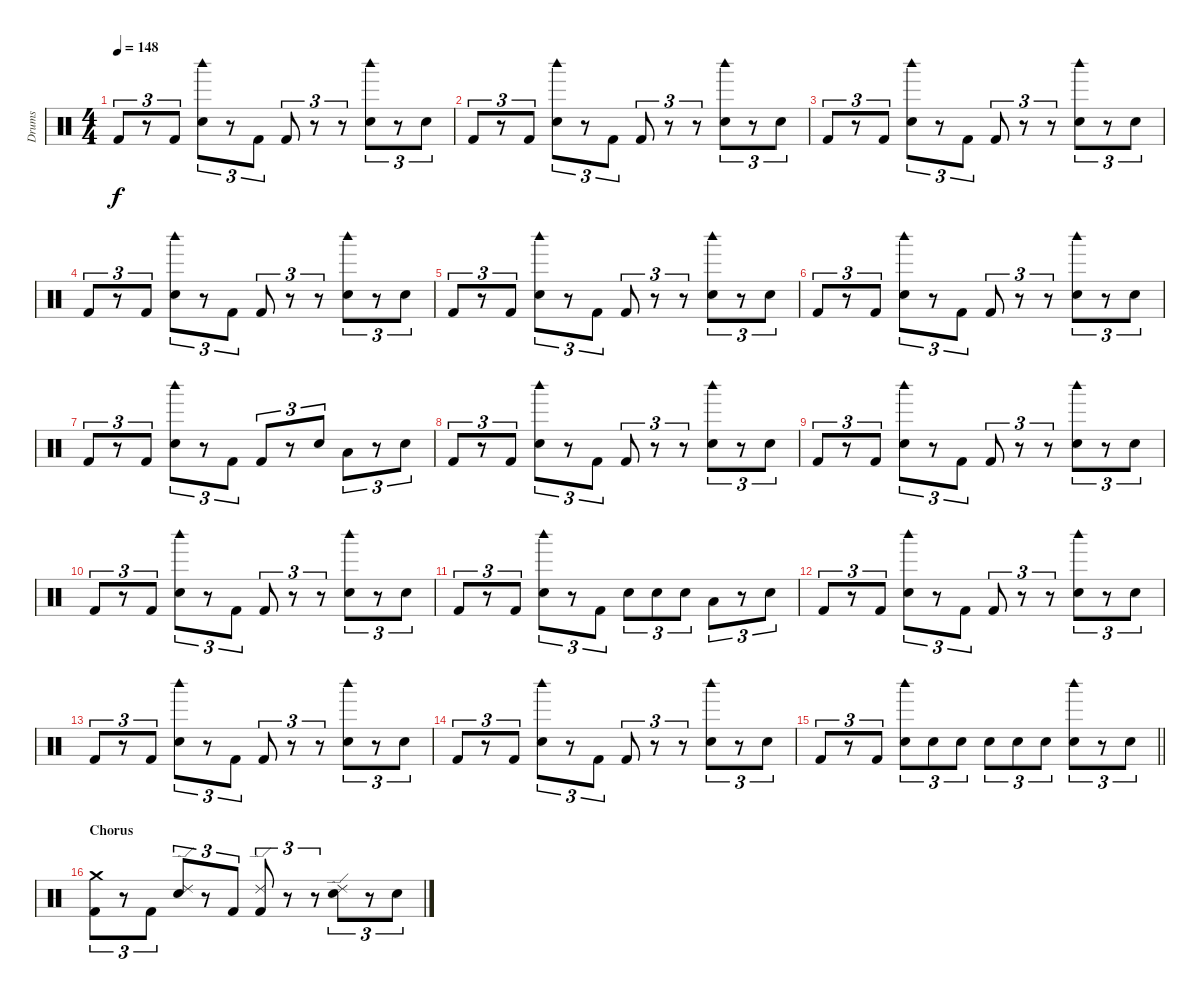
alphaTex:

\track ("Drums" "Drums") {instrument percussion}
\staff {score}
\articulation defaults
\ts (4 4)
\tempo 148
\clef neutral
\ks c "Kick (hit) 2".8{tu (3 2) dy f}
r.8{tu (3 2)} "Kick (hit) 2".8{tu (3 2)} ("Woodblock high (hit)" "Snare (hit) 2").8{tu (3 2)} r.8{tu (3 2)} "Kick (hit) 2".8{tu (3 2)} "Kick (hit) 2".8{tu (3 2)} r.8{tu (3 2)} r.8{tu (3 2)} ("Woodblock high (hit)" "Snare (hit) 2").8{tu (3 2)} r.8{tu (3 2)} "Snare (hit) 2".8{tu (3 2)} |
"Kick (hit) 2".8{tu (3 2)} r.8{tu (3 2)} "Kick (hit) 2".8{tu (3 2)} ("Woodblock high (hit)" "Snare (hit) 2").8{tu (3 2)} r.8{tu (3 2)} "Kick (hit) 2".8{tu (3 2)} "Kick (hit) 2".8{tu (3 2)} r.8{tu (3 2)} r.8{tu (3 2)} ("Woodblock high (hit)" "Snare (hit) 2").8{tu (3 2)} r.8{tu (3 2)} "Snare (hit) 2".8{tu (3 2)} |
"Kick (hit) 2".8{tu (3 2)} r.8{tu (3 2)} "Kick (hit) 2".8{tu (3 2)} ("Woodblock high (hit)" "Snare (hit) 2").8{tu (3 2)} r.8{tu (3 2)} "Kick (hit) 2".8{tu (3 2)} "Kick (hit) 2".8{tu (3 2)} r.8{tu (3 2)} r.8{tu (3 2)} ("Woodblock high (hit)" "Snare (hit) 2").8{tu (3 2)} r.8{tu (3 2)} "Snare (hit) 2".8{tu (3 2)} |
"Kick (hit) 2".8{tu (3 2)} r.8{tu (3 2)} "Kick (hit) 2".8{tu (3 2)} ("Woodblock high (hit)" "Snare (hit) 2").8{tu (3 2)} r.8{tu (3 2)} "Kick (hit) 2".8{tu (3 2)} "Kick (hit) 2".8{tu (3 2)} r.8{tu (3 2)} r.8{tu (3 2)} ("Woodblock high (hit)" "Snare (hit) 2").8{tu (3 2)} r.8{tu (3 2)} "Snare (hit) 2".8{tu (3 2)} |
"Kick (hit) 2".8{tu (3 2)} r.8{tu (3 2)} "Kick (hit) 2".8{tu (3 2)} ("Woodblock high (hit)" "Snare (hit) 2").8{tu (3 2)} r.8{tu (3 2)} "Kick (hit) 2".8{tu (3 2)} "Kick (hit) 2".8{tu (3 2)} r.8{tu (3 2)} r.8{tu (3 2)} ("Woodblock high (hit)" "Snare (hit) 2").8{tu (3 2)} r.8{tu (3 2)} "Snare (hit) 2".8{tu (3 2)} |
"Kick (hit) 2".8{tu (3 2)} r.8{tu (3 2)} "Kick (hit) 2".8{tu (3 2)} ("Woodblock high (hit)" "Snare (hit) 2").8{tu (3 2)} r.8{tu (3 2)} "Kick (hit) 2".8{tu (3 2)} "Kick (hit) 2".8{tu (3 2)} r.8{tu (3 2)} r.8{tu (3 2)} ("Woodblock high (hit)" "Snare (hit) 2").8{tu (3 2)} r.8{tu (3 2)} "Snare (hit) 2".8{tu (3 2)} |
"Kick (hit) 2".8{tu (3 2)} r.8{tu (3 2)} "Kick (hit) 2".8{tu (3 2)} ("Woodblock high (hit)" "Snare (hit) 2").8{tu (3 2)} r.8{tu (3 2)} "Kick (hit) 2".8{tu (3 2)} "Kick (hit) 2".8{tu (3 2)} r.8{tu (3 2)} "Snare (hit) 2".8{tu (3 2)} "Low Tom (hit)".8{tu (3 2)} r.8{tu (3 2)} "Snare (hit) 2".8{tu (3 2)} |
"Kick (hit) 2".8{tu (3 2)} r.8{tu (3 2)} "Kick (hit) 2".8{tu (3 2)} ("Woodblock high (hit)" "Snare (hit) 2").8{tu (3 2)} r.8{tu (3 2)} "Kick (hit) 2".8{tu (3 2)} "Kick (hit) 2".8{tu (3 2)} r.8{tu (3 2)} r.8{tu (3 2)} ("Woodblock high (hit)" "Snare (hit) 2").8{tu (3 2)} r.8{tu (3 2)} "Snare (hit) 2".8{tu (3 2)} |
"Kick (hit) 2".8{tu (3 2)} r.8{tu (3 2)} "Kick (hit) 2".8{tu (3 2)} ("Woodblock high (hit)" "Snare (hit) 2").8{tu (3 2)} r.8{tu (3 2)} "Kick (hit) 2".8{tu (3 2)} "Kick (hit) 2".8{tu (3 2)} r.8{tu (3 2)} r.8{tu (3 2)} ("Woodblock high (hit)" "Snare (hit) 2").8{tu (3 2)} r.8{tu (3 2)} "Snare (hit) 2".8{tu (3 2)} |
"Kick (hit) 2".8{tu (3 2)} r.8{tu (3 2)} "Kick (hit) 2".8{tu (3 2)} ("Woodblock high (hit)" "Snare (hit) 2").8{tu (3 2)} r.8{tu (3 2)} "Kick (hit) 2".8{tu (3 2)} "Kick (hit) 2".8{tu (3 2)} r.8{tu (3 2)} r.8{tu (3 2)} ("Woodblock high (hit)" "Snare (hit) 2").8{tu (3 2)} r.8{tu (3 2)} "Snare (hit) 2".8{tu (3 2)} |
"Kick (hit) 2".8{tu (3 2)} r.8{tu (3 2)} "Kick (hit) 2".8{tu (3 2)} ("Woodblock high (hit)" "Snare (hit) 2").8{tu (3 2)} r.8{tu (3 2)} "Kick (hit) 2".8{tu (3 2)} "Snare (hit) 2".8{tu (3 2)} "Snare (hit) 2".8{tu (3 2)} "Snare (hit) 2".8{tu (3 2)} "Low Tom (hit)".8{tu (3 2)} r.8{tu (3 2)} "Snare (hit) 2".8{tu (3 2)} |
"Kick (hit) 2".8{tu (3 2)} r.8{tu (3 2)} "Kick (hit) 2".8{tu (3 2)} ("Woodblock high (hit)" "Snare (hit) 2").8{tu (3 2)} r.8{tu (3 2)} "Kick (hit) 2".8{tu (3 2)} "Kick (hit) 2".8{tu (3 2)} r.8{tu (3 2)} r.8{tu (3 2)} ("Woodblock high (hit)" "Snare (hit) 2").8{tu (3 2)} r.8{tu (3 2)} "Snare (hit) 2".8{tu (3 2)} |
"Kick (hit) 2".8{tu (3 2)} r.8{tu (3 2)} "Kick (hit) 2".8{tu (3 2)} ("Woodblock high (hit)" "Snare (hit) 2").8{tu (3 2)} r.8{tu (3 2)} "Kick (hit) 2".8{tu (3 2)} "Kick (hit) 2".8{tu (3 2)} r.8{tu (3 2)} r.8{tu (3 2)} ("Woodblock high (hit)" "Snare (hit) 2").8{tu (3 2)} r.8{tu (3 2)} "Snare (hit) 2".8{tu (3 2)} |
"Kick (hit) 2".8{tu (3 2)} r.8{tu (3 2)} "Kick (hit) 2".8{tu (3 2)} ("Woodblock high (hit)" "Snare (hit) 2").8{tu (3 2)} r.8{tu (3 2)} "Kick (hit) 2".8{tu (3 2)} "Kick (hit) 2".8{tu (3 2)} r.8{tu (3 2)} r.8{tu (3 2)} ("Woodblock high (hit)" "Snare (hit) 2").8{tu (3 2)} r.8{tu (3 2)} "Snare (hit) 2".8{tu (3 2)} |
\barLineRight lightlight "Kick (hit) 2".8{tu (3 2)}
r.8{tu (3 2)} "Kick (hit) 2".8{tu (3 2)} ("Woodblock high (hit)" "Snare (hit) 2").8{tu (3 2)} "Snare (hit) 2".8{tu (3 2)} "Snare (hit) 2".8{tu (3 2)} "Snare (hit) 2".8{tu (3 2)} "Snare (hit) 2".8{tu (3 2)} "Snare (hit) 2".8{tu (3 2)} ("Woodblock high (hit)" "Snare (hit) 2").8{tu (3 2)} r.8{tu (3 2)} "Snare (hit) 2".8{tu (3 2)} |
\section ("" "Chorus")
("Crash medium (hit)" "Kick (hit) 2").8{tu (3 2)} r.8{tu (3 2)} "Kick (hit) 2".8{tu (3 2)} ("Ride (edge) 2" "Snare (hit) 2").8{tu (3 2)} r.8{tu (3 2)} "Kick (hit) 2".8{tu (3 2)} ("Ride (edge) 2" "Kick (hit) 2").8{tu (3 2)} r.8{tu (3 2)} r.8{tu (3 2)} ("Ride (edge) 2" "Snare (hit) 2").8{tu (3 2)} r.8{tu (3 2)} "Snare (hit) 2".8{tu (3 2)}
